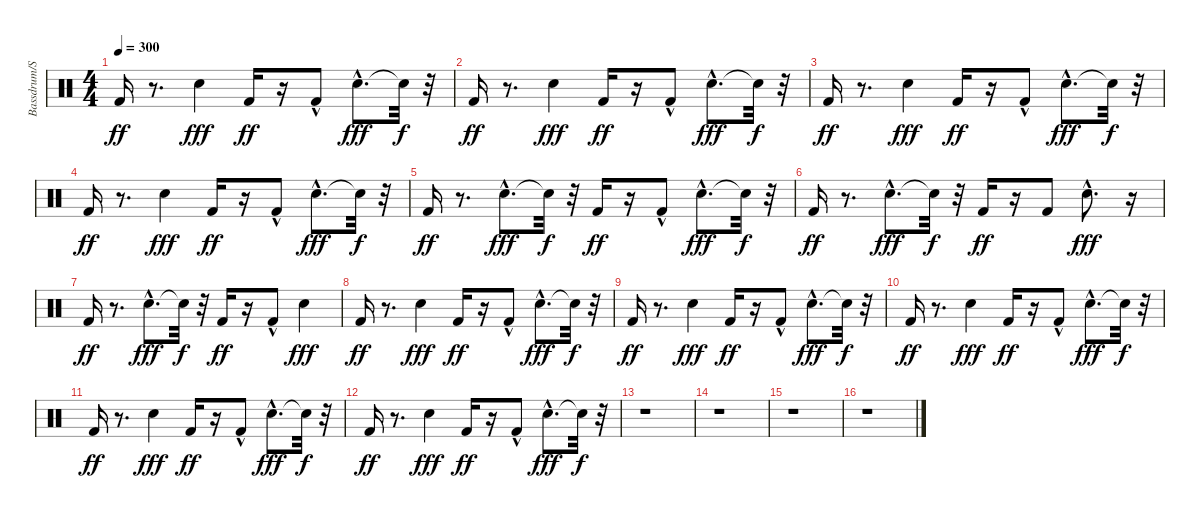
\track ("Bassdrum/Snare" "Bassdrum/S") {instrument percussion}
\staff {score}
\articulation defaults
\ts (4 4)
\tempo 300
\clef neutral
\ks c "Kick (hit) 2".16{dy ff}
r.8{d} "Snare (hit) 2".4{dy fff} "Kick (hit) 2".16{dy ff} r.16 "Kick (hit) 2"{hac}.8 "Snare (hit) 2"{hac}.8{d dy fff} "Snare (hit)"{t}.32{dy f} r.32 |
"Kick (hit) 2".16{dy ff} r.8{d} "Snare (hit) 2".4{dy fff} "Kick (hit) 2".16{dy ff} r.16 "Kick (hit) 2"{hac}.8 "Snare (hit) 2"{hac}.8{d dy fff} "Snare (hit)"{t}.32{dy f} r.32 |
"Kick (hit) 2".16{dy ff} r.8{d} "Snare (hit) 2".4{dy fff} "Kick (hit) 2".16{dy ff} r.16 "Kick (hit) 2"{hac}.8 "Snare (hit) 2"{hac}.8{d dy fff} "Snare (hit)"{t}.32{dy f} r.32 |
"Kick (hit) 2".16{dy ff} r.8{d} "Snare (hit) 2".4{dy fff} "Kick (hit) 2".16{dy ff} r.16 "Kick (hit) 2"{hac}.8 "Snare (hit) 2"{hac}.8{d dy fff} "Snare (hit)"{t}.32{dy f} r.32 |
"Kick (hit) 2".16{dy ff} r.8{d} "Snare (hit) 2"{hac}.8{d dy fff} "Snare (hit)"{t}.32{dy f} r.32 "Kick (hit) 2".16{dy ff} r.16 "Kick (hit) 2"{hac}.8 "Snare (hit) 2"{hac}.8{d dy fff} "Snare (hit)"{t}.32{dy f} r.32 |
"Kick (hit) 2".16{dy ff} r.8{d} "Snare (hit) 2"{hac}.8{d dy fff} "Snare (hit)"{t}.32{dy f} r.32 "Kick (hit) 2".16{dy ff} r.16 "Kick (hit) 2".8 "Snare (hit) 2"{hac}.8{d dy fff} r.16 |
"Kick (hit) 2".16{dy ff} r.8{d} "Snare (hit) 2"{hac}.8{d dy fff} "Snare (hit)"{t}.32{dy f} r.32 "Kick (hit) 2".16{dy ff} r.16 "Kick (hit) 2"{hac}.8 "Snare (hit) 2".4{dy fff} |
"Kick (hit) 2".16{dy ff} r.8{d} "Snare (hit) 2".4{dy fff} "Kick (hit) 2".16{dy ff} r.16 "Kick (hit) 2"{hac}.8 "Snare (hit) 2"{hac}.8{d dy fff} "Snare (hit)"{t}.32{dy f} r.32 |
"Kick (hit) 2".16{dy ff} r.8{d} "Snare (hit) 2".4{dy fff} "Kick (hit) 2".16{dy ff} r.16 "Kick (hit) 2"{hac}.8 "Snare (hit) 2"{hac}.8{d dy fff} "Snare (hit)"{t}.32{dy f} r.32 |
"Kick (hit) 2".16{dy ff} r.8{d} "Snare (hit) 2".4{dy fff} "Kick (hit) 2".16{dy ff} r.16 "Kick (hit) 2"{hac}.8 "Snare (hit) 2"{hac}.8{d dy fff} "Snare (hit)"{t}.32{dy f} r.32 |
"Kick (hit) 2".16{dy ff} r.8{d} "Snare (hit) 2".4{dy fff} "Kick (hit) 2".16{dy ff} r.16 "Kick (hit) 2"{hac}.8 "Snare (hit) 2"{hac}.8{d dy fff} "Snare (hit)"{t}.32{dy f} r.32 |
"Kick (hit) 2".16{dy ff} r.8{d} "Snare (hit) 2".4{dy fff} "Kick (hit) 2".16{dy ff} r.16 "Kick (hit) 2"{hac}.8 "Snare (hit) 2"{hac}.8{d dy fff} "Snare (hit)"{t}.32{dy f} r.32 |
r.1 |
r.1 |
r.1 |
r.1
